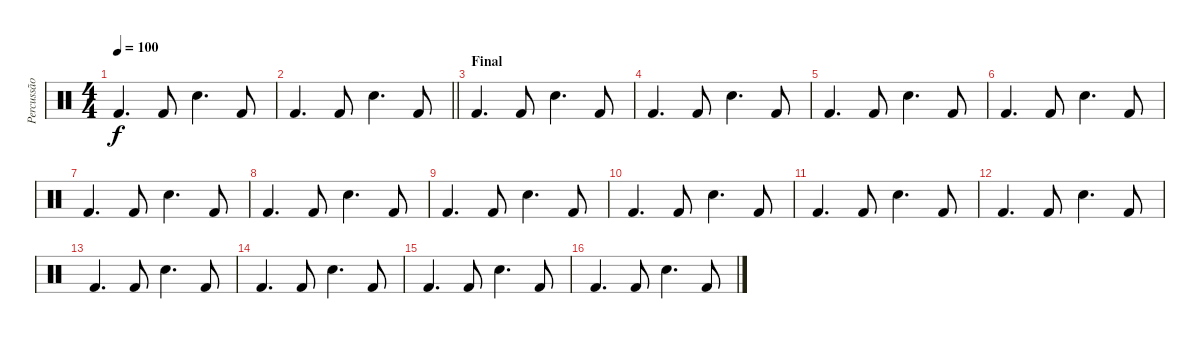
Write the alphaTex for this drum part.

\track ("Percussão" "Percussão") {instrument percussion}
\staff {score}
\articulation defaults
\ts (4 4)
\tempo 100
\clef neutral
\ks c "Kick (hit) 2".4{d dy f} "Kick (hit) 2".8 "Electric Snare (hit)".4{d} "Kick (hit) 2".8
|
\barLineRight lightlight "Kick (hit) 2".4{d} "Kick (hit) 2".8 "Electric Snare (hit)".4{d} "Kick (hit) 2".8
|
\section ("" "Final")
"Kick (hit) 2".4{d} "Kick (hit) 2".8 "Electric Snare (hit)".4{d} "Kick (hit) 2".8 |
"Kick (hit) 2".4{d} "Kick (hit) 2".8 "Electric Snare (hit)".4{d} "Kick (hit) 2".8 |
"Kick (hit) 2".4{d} "Kick (hit) 2".8 "Electric Snare (hit)".4{d} "Kick (hit) 2".8 |
"Kick (hit) 2".4{d} "Kick (hit) 2".8 "Electric Snare (hit)".4{d} "Kick (hit) 2".8 |
"Kick (hit) 2".4{d} "Kick (hit) 2".8 "Electric Snare (hit)".4{d} "Kick (hit) 2".8 |
"Kick (hit) 2".4{d} "Kick (hit) 2".8 "Electric Snare (hit)".4{d} "Kick (hit) 2".8 |
"Kick (hit) 2".4{d} "Kick (hit) 2".8 "Electric Snare (hit)".4{d} "Kick (hit) 2".8 |
"Kick (hit) 2".4{d} "Kick (hit) 2".8 "Electric Snare (hit)".4{d} "Kick (hit) 2".8 |
"Kick (hit) 2".4{d} "Kick (hit) 2".8 "Electric Snare (hit)".4{d} "Kick (hit) 2".8 |
"Kick (hit) 2".4{d} "Kick (hit) 2".8 "Electric Snare (hit)".4{d} "Kick (hit) 2".8 |
"Kick (hit) 2".4{d} "Kick (hit) 2".8 "Electric Snare (hit)".4{d} "Kick (hit) 2".8 |
"Kick (hit) 2".4{d} "Kick (hit) 2".8 "Electric Snare (hit)".4{d} "Kick (hit) 2".8 |
"Kick (hit) 2".4{d} "Kick (hit) 2".8 "Electric Snare (hit)".4{d} "Kick (hit) 2".8 |
"Kick (hit) 2".4{d} "Kick (hit) 2".8 "Electric Snare (hit)".4{d} "Kick (hit) 2".8
